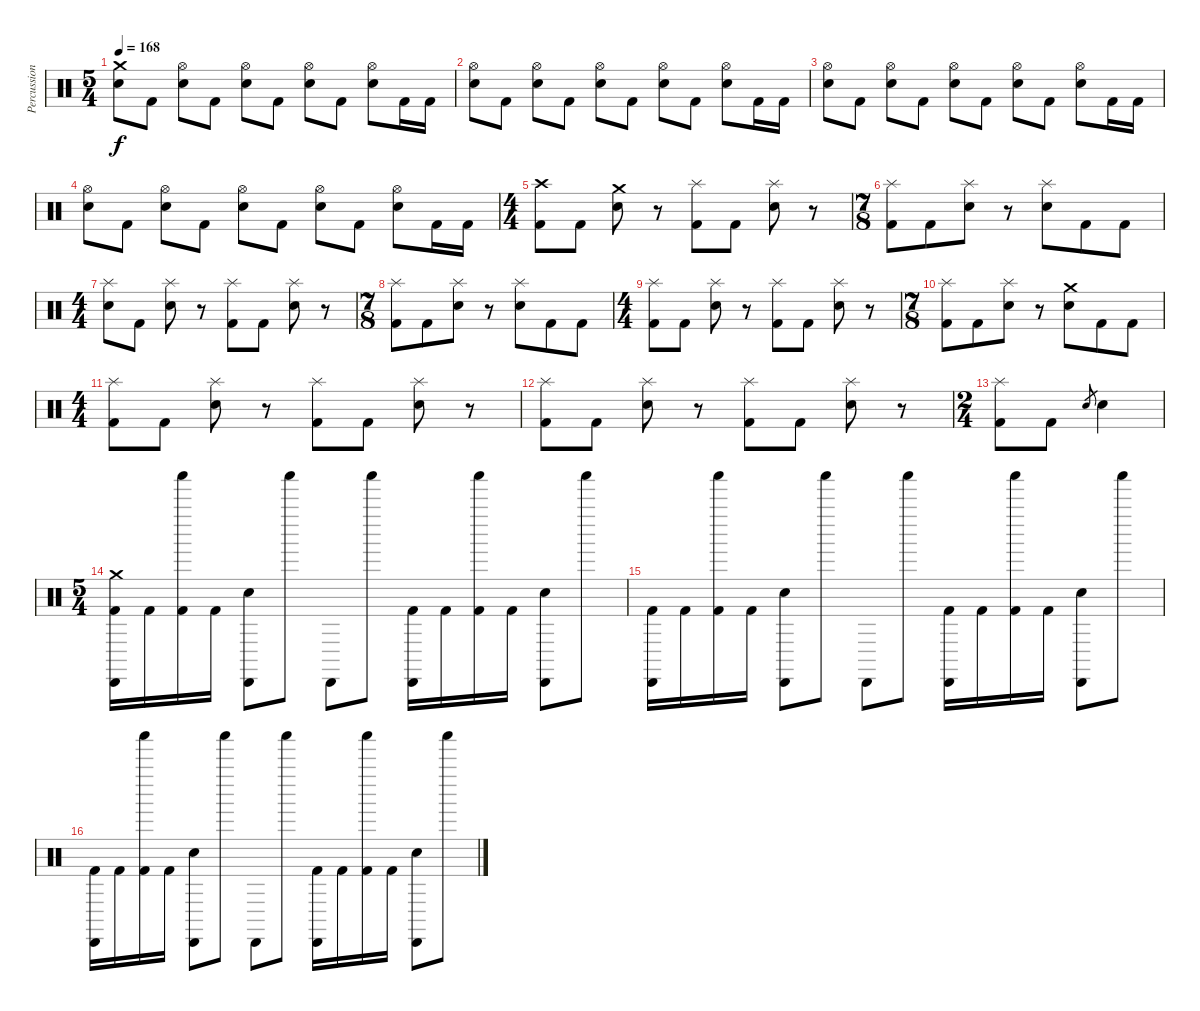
\track ("Percussion" "Percussion") {instrument percussion}
\staff {score}
\articulation defaults
\ts (5 4)
\tempo 168
\clef neutral
\ks c
("Crash medium (hit)" "Electric Snare (hit)").8{dy f} "Kick (hit) 2".8 ("Hi-Hat (open)" "Electric Snare (hit)").8 "Kick (hit) 2".8 ("Hi-Hat (open)" "Electric Snare (hit)").8 "Kick (hit) 2".8 ("Hi-Hat (open)" "Electric Snare (hit)").8 "Kick (hit) 2".8 ("Hi-Hat (open)" "Electric Snare (hit)").8 "Kick (hit) 2".16 "Kick (hit) 2".16 |
("Hi-Hat (open)" "Electric Snare (hit)").8 "Kick (hit) 2".8 ("Hi-Hat (open)" "Electric Snare (hit)").8 "Kick (hit) 2".8 ("Hi-Hat (open)" "Electric Snare (hit)").8 "Kick (hit) 2".8 ("Hi-Hat (open)" "Electric Snare (hit)").8 "Kick (hit) 2".8 ("Hi-Hat (open)" "Electric Snare (hit)").8 "Kick (hit) 2".16 "Kick (hit) 2".16 |
("Hi-Hat (open)" "Electric Snare (hit)").8 "Kick (hit) 2".8 ("Hi-Hat (open)" "Electric Snare (hit)").8 "Kick (hit) 2".8 ("Hi-Hat (open)" "Electric Snare (hit)").8 "Kick (hit) 2".8 ("Hi-Hat (open)" "Electric Snare (hit)").8 "Kick (hit) 2".8 ("Hi-Hat (open)" "Electric Snare (hit)").8 "Kick (hit) 2".16 "Kick (hit) 2".16 |
("Hi-Hat (open)" "Electric Snare (hit)").8 "Kick (hit) 2".8 ("Hi-Hat (open)" "Electric Snare (hit)").8 "Kick (hit) 2".8 ("Hi-Hat (open)" "Electric Snare (hit)").8 "Kick (hit) 2".8 ("Hi-Hat (open)" "Electric Snare (hit)").8 "Kick (hit) 2".8 ("Hi-Hat (open)" "Electric Snare (hit)").8 "Kick (hit) 2".16 "Kick (hit) 2".16 |
\ts (4 4)
("Crash high (hit)" "Kick (hit) 2").8 "Kick (hit) 2".8 ("Crash medium (hit)" "Electric Snare (hit)").8 r.8 ("Splash (hit)" "Kick (hit) 2").8 "Kick (hit) 2".8 ("Splash (hit)" "Electric Snare (hit)").8 r.8 |
\ts (7 8)
("Splash (hit)" "Kick (hit) 2").8 "Kick (hit) 2".8 ("Splash (hit)" "Electric Snare (hit)").8 r.8 ("Splash (hit)" "Electric Snare (hit)").8 "Kick (hit) 2".8 "Kick (hit) 2".8 |
\ts (4 4)
("Splash (hit)" "Electric Snare (hit)").8 "Kick (hit) 2".8 ("Splash (hit)" "Electric Snare (hit)").8 r.8 ("Splash (hit)" "Kick (hit) 2").8 "Kick (hit) 2".8 ("Splash (hit)" "Electric Snare (hit)").8 r.8 |
\ts (7 8)
("Splash (hit)" "Kick (hit) 2").8 "Kick (hit) 2".8 ("Splash (hit)" "Electric Snare (hit)").8 r.8 ("Splash (hit)" "Electric Snare (hit)").8 "Kick (hit) 2".8 "Kick (hit) 2".8 |
\ts (4 4)
("Splash (hit)" "Kick (hit) 2").8 "Kick (hit) 2".8 ("Splash (hit)" "Electric Snare (hit)").8 r.8 ("Splash (hit)" "Kick (hit) 2").8 "Kick (hit) 2".8 ("Splash (hit)" "Electric Snare (hit)").8 r.8 |
\ts (7 8)
("Splash (hit)" "Kick (hit) 2").8 "Kick (hit) 2".8 ("Splash (hit)" "Electric Snare (hit)").8 r.8 ("Crash medium (hit)" "Electric Snare (hit)").8 "Kick (hit) 2".8 "Kick (hit) 2".8 |
\ts (4 4)
("Splash (hit)" "Kick (hit) 2").8 "Kick (hit) 2".8 ("Splash (hit)" "Electric Snare (hit)").8 r.8 ("Splash (hit)" "Kick (hit) 2").8 "Kick (hit) 2".8 ("Splash (hit)" "Electric Snare (hit)").8 r.8 |
("Splash (hit)" "Kick (hit) 2").8 "Kick (hit) 2".8 ("Splash (hit)" "Electric Snare (hit)").8 r.8 ("Splash (hit)" "Kick (hit) 2").8 "Kick (hit) 2".8 ("Splash (hit)" "Electric Snare (hit)").8 r.8 |
\ts (2 4)
("Splash (hit)" "Kick (hit) 2").8 "Kick (hit) 2".8 "Electric Snare (hit)".8{gr} "Electric Snare (hit)".4 |
\ts (5 4)
("Crash medium (hit)" "Cabasa (hit)" "Kick (hit) 2").16 "Kick (hit) 2".16 ("Shaker (hit)" "Kick (hit) 2").16 "Kick (hit) 2".16 ("Cabasa (hit)" "Electric Snare (hit)").8 "Shaker (hit)".8 "Cabasa (hit)".8 "Shaker (hit)".8 ("Cabasa (hit)" "Kick (hit) 2").16 "Kick (hit) 2".16 ("Shaker (hit)" "Kick (hit) 2").16 "Kick (hit) 2".16 ("Cabasa (hit)" "Electric Snare (hit)").8 "Shaker (hit)".8 |
("Cabasa (hit)" "Kick (hit) 2").16 "Kick (hit) 2".16 ("Shaker (hit)" "Kick (hit) 2").16 "Kick (hit) 2".16 ("Cabasa (hit)" "Electric Snare (hit)").8 "Shaker (hit)".8 "Cabasa (hit)".8 "Shaker (hit)".8 ("Cabasa (hit)" "Kick (hit) 2").16 "Kick (hit) 2".16 ("Shaker (hit)" "Kick (hit) 2").16 "Kick (hit) 2".16 ("Cabasa (hit)" "Electric Snare (hit)").8 "Shaker (hit)".8 |
("Cabasa (hit)" "Kick (hit) 2").16 "Kick (hit) 2".16 ("Shaker (hit)" "Kick (hit) 2").16 "Kick (hit) 2".16 ("Cabasa (hit)" "Electric Snare (hit)").8 "Shaker (hit)".8 "Cabasa (hit)".8 "Shaker (hit)".8 ("Cabasa (hit)" "Kick (hit) 2").16 "Kick (hit) 2".16 ("Shaker (hit)" "Kick (hit) 2").16 "Kick (hit) 2".16 ("Cabasa (hit)" "Electric Snare (hit)").8 "Shaker (hit)".8
